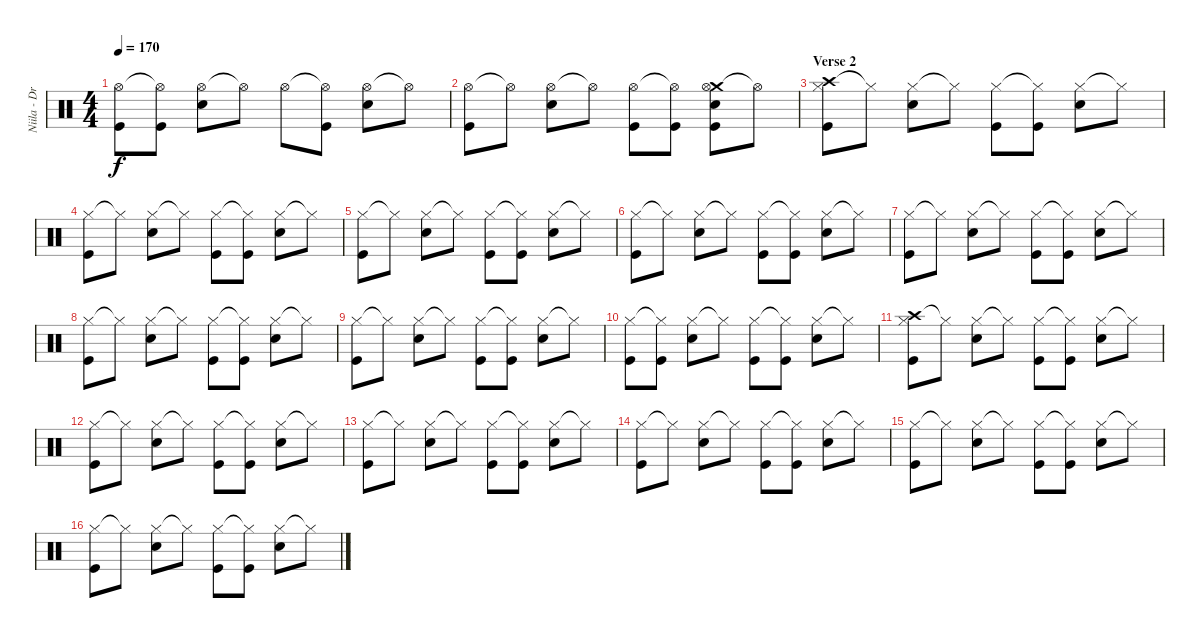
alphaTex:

\track ("Niila - Drums" "Niila - Dr") {instrument percussion}
\staff {score}
\articulation defaults
\ts (4 4)
\tempo 170
\clef neutral
\ks c
("Hi-Hat (open)" "Kick (hit)").8{dy f} ("Hi-Hat (open)"{t} "Kick (hit)").8 ("Hi-Hat (open)" "Snare (hit) 2").8 "Hi-Hat (open)"{t}.8 "Hi-Hat (open)".8 ("Hi-Hat (open)"{t} "Kick (hit)").8 ("Hi-Hat (open)" "Snare (hit) 2").8 "Hi-Hat (open)"{t}.8 |
("Hi-Hat (open)" "Kick (hit)").8 "Hi-Hat (open)"{t}.8 ("Hi-Hat (open)" "Snare (hit) 2").8 "Hi-Hat (open)"{t}.8 ("Hi-Hat (open)" "Kick (hit)").8 ("Hi-Hat (open)"{t} "Kick (hit)").8 ("Crash medium (hit)" "Hi-Hat (open)" "Snare (hit) 2" "Kick (hit)").8 "Hi-Hat (open)"{t}.8 |
\section ("" "Verse 2")
("Crash high (hit)" "Hi-Hat (closed)" "Kick (hit)").8 "Hi-Hat (closed)"{t}.8 ("Hi-Hat (closed)" "Snare (hit) 2").8 "Hi-Hat (closed)"{t}.8 ("Hi-Hat (closed)" "Kick (hit)").8 ("Hi-Hat (closed)"{t} "Kick (hit)").8 ("Hi-Hat (closed)" "Snare (hit) 2").8 "Hi-Hat (closed)"{t}.8 |
("Hi-Hat (closed)" "Kick (hit)").8 "Hi-Hat (closed)"{t}.8 ("Hi-Hat (closed)" "Snare (hit) 2").8 "Hi-Hat (closed)"{t}.8 ("Hi-Hat (closed)" "Kick (hit)").8 ("Hi-Hat (closed)"{t} "Kick (hit)").8 ("Hi-Hat (closed)" "Snare (hit) 2").8 "Hi-Hat (closed)"{t}.8 |
("Hi-Hat (closed)" "Kick (hit)").8 "Hi-Hat (closed)"{t}.8 ("Hi-Hat (closed)" "Snare (hit) 2").8 "Hi-Hat (closed)"{t}.8 ("Hi-Hat (closed)" "Kick (hit)").8 ("Hi-Hat (closed)"{t} "Kick (hit)").8 ("Hi-Hat (closed)" "Snare (hit) 2").8 "Hi-Hat (closed)"{t}.8 |
("Hi-Hat (closed)" "Kick (hit)").8 "Hi-Hat (closed)"{t}.8 ("Hi-Hat (closed)" "Snare (hit) 2").8 "Hi-Hat (closed)"{t}.8 ("Hi-Hat (closed)" "Kick (hit)").8 ("Hi-Hat (closed)"{t} "Kick (hit)").8 ("Hi-Hat (closed)" "Snare (hit) 2").8 "Hi-Hat (closed)"{t}.8 |
("Hi-Hat (closed)" "Kick (hit)").8 "Hi-Hat (closed)"{t}.8 ("Hi-Hat (closed)" "Snare (hit) 2").8 "Hi-Hat (closed)"{t}.8 ("Hi-Hat (closed)" "Kick (hit)").8 ("Hi-Hat (closed)"{t} "Kick (hit)").8 ("Hi-Hat (closed)" "Snare (hit) 2").8 "Hi-Hat (closed)"{t}.8 |
("Hi-Hat (closed)" "Kick (hit)").8 "Hi-Hat (closed)"{t}.8 ("Hi-Hat (closed)" "Snare (hit) 2").8 "Hi-Hat (closed)"{t}.8 ("Hi-Hat (closed)" "Kick (hit)").8 ("Hi-Hat (closed)"{t} "Kick (hit)").8 ("Hi-Hat (closed)" "Snare (hit) 2").8 "Hi-Hat (closed)"{t}.8 |
("Hi-Hat (closed)" "Kick (hit)").8 "Hi-Hat (closed)"{t}.8 ("Hi-Hat (closed)" "Snare (hit) 2").8 "Hi-Hat (closed)"{t}.8 ("Hi-Hat (closed)" "Kick (hit)").8 ("Hi-Hat (closed)"{t} "Kick (hit)").8 ("Hi-Hat (closed)" "Snare (hit) 2").8 "Hi-Hat (closed)"{t}.8 |
("Hi-Hat (closed)" "Kick (hit)").8 ("Hi-Hat (closed)"{t} "Kick (hit)").8 ("Hi-Hat (closed)" "Snare (hit) 2").8 "Hi-Hat (closed)"{t}.8 ("Hi-Hat (closed)" "Kick (hit)").8 ("Hi-Hat (closed)"{t} "Kick (hit)").8 ("Hi-Hat (closed)" "Snare (hit) 2").8 "Hi-Hat (closed)"{t}.8 |
("Crash high (hit)" "Hi-Hat (closed)" "Kick (hit)").8 "Hi-Hat (closed)"{t}.8 ("Hi-Hat (closed)" "Snare (hit) 2").8 "Hi-Hat (closed)"{t}.8 ("Hi-Hat (closed)" "Kick (hit)").8 ("Hi-Hat (closed)"{t} "Kick (hit)").8 ("Hi-Hat (closed)" "Snare (hit) 2").8 "Hi-Hat (closed)"{t}.8 |
("Hi-Hat (closed)" "Kick (hit)").8 "Hi-Hat (closed)"{t}.8 ("Hi-Hat (closed)" "Snare (hit) 2").8 "Hi-Hat (closed)"{t}.8 ("Hi-Hat (closed)" "Kick (hit)").8 ("Hi-Hat (closed)"{t} "Kick (hit)").8 ("Hi-Hat (closed)" "Snare (hit) 2").8 "Hi-Hat (closed)"{t}.8 |
("Hi-Hat (closed)" "Kick (hit)").8 "Hi-Hat (closed)"{t}.8 ("Hi-Hat (closed)" "Snare (hit) 2").8 "Hi-Hat (closed)"{t}.8 ("Hi-Hat (closed)" "Kick (hit)").8 ("Hi-Hat (closed)"{t} "Kick (hit)").8 ("Hi-Hat (closed)" "Snare (hit) 2").8 "Hi-Hat (closed)"{t}.8 |
("Hi-Hat (closed)" "Kick (hit)").8 "Hi-Hat (closed)"{t}.8 ("Hi-Hat (closed)" "Snare (hit) 2").8 "Hi-Hat (closed)"{t}.8 ("Hi-Hat (closed)" "Kick (hit)").8 ("Hi-Hat (closed)"{t} "Kick (hit)").8 ("Hi-Hat (closed)" "Snare (hit) 2").8 "Hi-Hat (closed)"{t}.8 |
("Hi-Hat (closed)" "Kick (hit)").8 "Hi-Hat (closed)"{t}.8 ("Hi-Hat (closed)" "Snare (hit) 2").8 "Hi-Hat (closed)"{t}.8 ("Hi-Hat (closed)" "Kick (hit)").8 ("Hi-Hat (closed)"{t} "Kick (hit)").8 ("Hi-Hat (closed)" "Snare (hit) 2").8 "Hi-Hat (closed)"{t}.8 |
("Hi-Hat (closed)" "Kick (hit)").8 "Hi-Hat (closed)"{t}.8 ("Hi-Hat (closed)" "Snare (hit) 2").8 "Hi-Hat (closed)"{t}.8 ("Hi-Hat (closed)" "Kick (hit)").8 ("Hi-Hat (closed)"{t} "Kick (hit)").8 ("Hi-Hat (closed)" "Snare (hit) 2").8 "Hi-Hat (closed)"{t}.8
